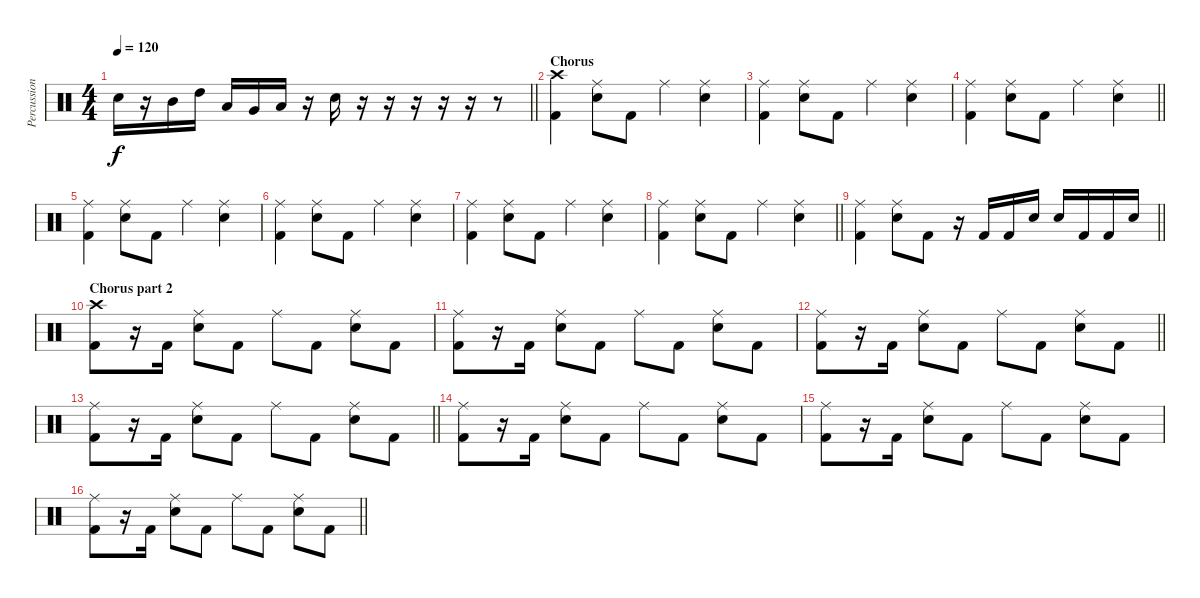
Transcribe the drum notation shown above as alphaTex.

\track ("Percussion" "Percussion") {instrument percussion}
\staff {score}
\articulation defaults
\ts (4 4)
\tempo 120
\clef neutral
\barLineRight lightlight
\ks c "Snare (hit) 2".16{dy f}
r.16 "Mid Tom (hit)".16 "High Tom (hit)".16 "Low Tom (hit)".16 "Very Low Tom (hit)".16 "Low Floor Tom (hit)".16 r.16 "Snare (hit) 2".16 r.16 r.16 r.16 r.16 r.16 r.8 |
\section ("" "Chorus")
("Crash high (hit)" "Kick (hit) 2").4 ("Ride (middle)" "Snare (hit) 2").8 "Kick (hit) 2".8 "Ride (middle)".4 ("Ride (middle)" "Snare (hit) 2").4 |
("Ride (middle)" "Kick (hit) 2").4 ("Ride (middle)" "Snare (hit) 2").8 "Kick (hit) 2".8 "Ride (middle)".4 ("Ride (middle)" "Snare (hit) 2").4 |
\barLineRight lightlight
("Ride (middle)" "Kick (hit) 2").4 ("Ride (middle)" "Snare (hit) 2").8 "Kick (hit) 2".8 "Ride (middle)".4 ("Ride (middle)" "Snare (hit) 2").4 |
("Ride (middle)" "Kick (hit) 2").4 ("Ride (middle)" "Snare (hit) 2").8 "Kick (hit) 2".8 "Ride (middle)".4 ("Ride (middle)" "Snare (hit) 2").4 |
("Ride (middle)" "Kick (hit) 2").4 ("Ride (middle)" "Snare (hit) 2").8 "Kick (hit) 2".8 "Ride (middle)".4 ("Ride (middle)" "Snare (hit) 2").4 |
("Ride (middle)" "Kick (hit) 2").4 ("Ride (middle)" "Snare (hit) 2").8 "Kick (hit) 2".8 "Ride (middle)".4 ("Ride (middle)" "Snare (hit) 2").4 |
\barLineRight lightlight
("Ride (middle)" "Kick (hit) 2").4 ("Ride (middle)" "Snare (hit) 2").8 "Kick (hit) 2".8 "Ride (middle)".4 ("Ride (middle)" "Snare (hit) 2").4 |
\barLineRight lightlight
("Ride (middle)" "Kick (hit) 2").4 ("Ride (middle)" "Snare (hit) 2").8 "Kick (hit) 2".8 r.16 "Kick (hit) 2".16 "Kick (hit) 2".16 "Snare (hit) 2".16 "Snare (hit) 2".16 "Kick (hit) 2".16 "Kick (hit) 2".16 "Snare (hit) 2".16 |
\section ("" "Chorus part 2")
("Crash high (hit)" "Kick (hit) 2").8 r.16 "Kick (hit) 2".16 ("Ride (middle)" "Snare (hit) 2").8 "Kick (hit) 2".8 "Ride (middle)".8 "Kick (hit) 2".8 ("Ride (middle)" "Snare (hit) 2").8 "Kick (hit) 2".8 |
("Ride (middle)" "Kick (hit) 2").8 r.16 "Kick (hit) 2".16 ("Ride (middle)" "Snare (hit) 2").8 "Kick (hit) 2".8 "Ride (middle)".8 "Kick (hit) 2".8 ("Ride (middle)" "Snare (hit) 2").8 "Kick (hit) 2".8 |
\barLineRight lightlight
("Ride (middle)" "Kick (hit) 2").8 r.16 "Kick (hit) 2".16 ("Ride (middle)" "Snare (hit) 2").8 "Kick (hit) 2".8 "Ride (middle)".8 "Kick (hit) 2".8 ("Ride (middle)" "Snare (hit) 2").8 "Kick (hit) 2".8 |
\barLineRight lightlight
("Ride (middle)" "Kick (hit) 2").8 r.16 "Kick (hit) 2".16 ("Ride (middle)" "Snare (hit) 2").8 "Kick (hit) 2".8 "Ride (middle)".8 "Kick (hit) 2".8 ("Ride (middle)" "Snare (hit) 2").8 "Kick (hit) 2".8 |
("Ride (middle)" "Kick (hit) 2").8 r.16 "Kick (hit) 2".16 ("Ride (middle)" "Snare (hit) 2").8 "Kick (hit) 2".8 "Ride (middle)".8 "Kick (hit) 2".8 ("Ride (middle)" "Snare (hit) 2").8 "Kick (hit) 2".8 |
("Ride (middle)" "Kick (hit) 2").8 r.16 "Kick (hit) 2".16 ("Ride (middle)" "Snare (hit) 2").8 "Kick (hit) 2".8 "Ride (middle)".8 "Kick (hit) 2".8 ("Ride (middle)" "Snare (hit) 2").8 "Kick (hit) 2".8 |
\barLineRight lightlight
("Ride (middle)" "Kick (hit) 2").8 r.16 "Kick (hit) 2".16 ("Ride (middle)" "Snare (hit) 2").8 "Kick (hit) 2".8 "Ride (middle)".8 "Kick (hit) 2".8 ("Ride (middle)" "Snare (hit) 2").8 "Kick (hit) 2".8
